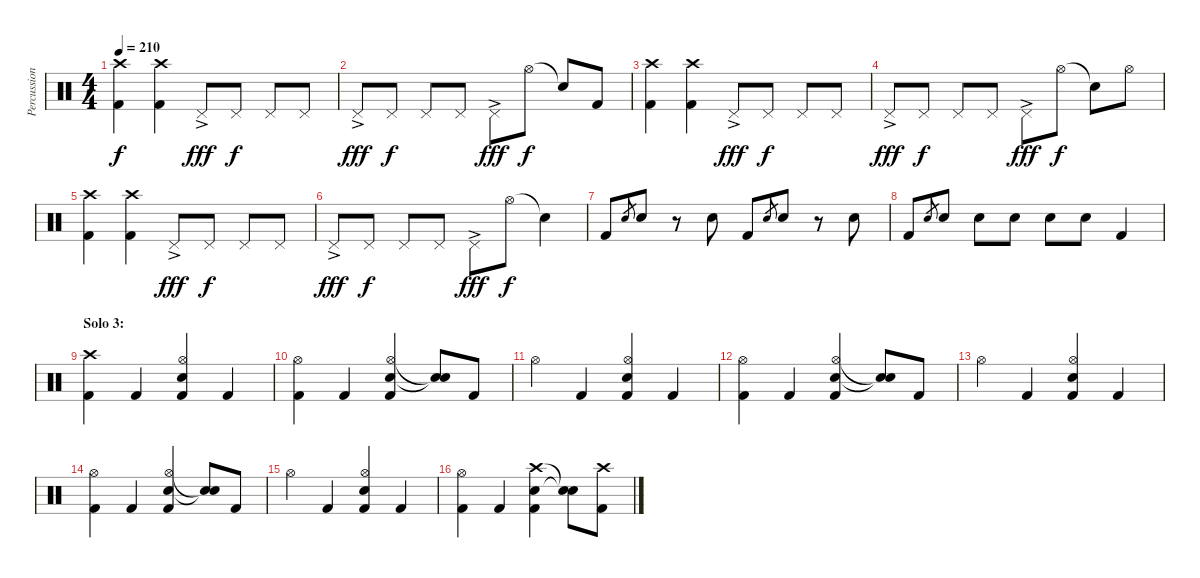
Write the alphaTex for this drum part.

\track ("Percussion" "Percussion") {instrument percussion}
\staff {score}
\articulation defaults
\ts (4 4)
\tempo 210
\clef neutral
\ks c
("Crash high (hit)" "Kick (hit) 2").4{dy f} ("Crash high (hit)" "Kick (hit) 2").4 "Pedal Hi-Hat (hit)"{ac}.8{dy fff} "Pedal Hi-Hat (hit)".8{dy f} "Pedal Hi-Hat (hit)".8 "Pedal Hi-Hat (hit)".8 |
"Pedal Hi-Hat (hit)"{ac}.8{dy fff} "Pedal Hi-Hat (hit)".8{dy f} "Pedal Hi-Hat (hit)".8 "Pedal Hi-Hat (hit)".8 "Pedal Hi-Hat (hit)"{ac}.8{dy fff} "Hi-Hat (open)".8{dy f} "Snare (hit)"{t}.8 "Kick (hit) 2".8 |
("Crash high (hit)" "Kick (hit) 2").4 ("Crash high (hit)" "Kick (hit) 2").4 "Pedal Hi-Hat (hit)"{ac}.8{dy fff} "Pedal Hi-Hat (hit)".8{dy f} "Pedal Hi-Hat (hit)".8 "Pedal Hi-Hat (hit)".8 |
"Pedal Hi-Hat (hit)"{ac}.8{dy fff} "Pedal Hi-Hat (hit)".8{dy f} "Pedal Hi-Hat (hit)".8 "Pedal Hi-Hat (hit)".8 "Pedal Hi-Hat (hit)"{ac}.8{dy fff} "Hi-Hat (open)".8{dy f} "Snare (hit)"{t}.8 "Hi-Hat (open)".8 |
("Crash high (hit)" "Kick (hit) 2").4 ("Crash high (hit)" "Kick (hit) 2").4 "Pedal Hi-Hat (hit)"{ac}.8{dy fff} "Pedal Hi-Hat (hit)".8{dy f} "Pedal Hi-Hat (hit)".8 "Pedal Hi-Hat (hit)".8 |
"Pedal Hi-Hat (hit)"{ac}.8{dy fff} "Pedal Hi-Hat (hit)".8{dy f} "Pedal Hi-Hat (hit)".8 "Pedal Hi-Hat (hit)".8 "Pedal Hi-Hat (hit)"{ac}.8{dy fff} "Hi-Hat (open)".8{dy f} "Snare (hit)"{t}.4 |
"Kick (hit) 2".8 "Snare (hit) 2".8{gr} "Snare (hit) 2".8 r.8 "Snare (hit) 2".8 "Kick (hit) 2".8 "Snare (hit) 2".8{gr} "Snare (hit) 2".8 r.8 "Snare (hit) 2".8 |
"Kick (hit) 2".8 "Snare (hit) 2".8{gr} "Snare (hit) 2".8 "Snare (hit) 2".8 "Snare (hit) 2".8 "Snare (hit) 2".8 "Snare (hit) 2".8 "Kick (hit) 2".4 |
\section ("" "Solo 3:")
("Crash high (hit)" "Kick (hit) 2").4 "Kick (hit) 2".4 ("Hi-Hat (open)" "Snare (hit) 2" "Kick (hit) 2").4 "Kick (hit) 2".4 |
("Hi-Hat (open)" "Kick (hit) 2").4 "Kick (hit) 2".4 ("Hi-Hat (open)" "Snare (hit) 2" "Kick (hit) 2").4 ("Snare (hit)"{t} "Snare (hit)"{t}).8 "Kick (hit) 2".8 |
"Hi-Hat (open)".4 "Kick (hit) 2".4 ("Hi-Hat (open)" "Snare (hit) 2" "Kick (hit) 2").4 "Kick (hit) 2".4 |
("Hi-Hat (open)" "Kick (hit) 2").4 "Kick (hit) 2".4 ("Hi-Hat (open)" "Snare (hit) 2" "Kick (hit) 2").4 ("Snare (hit)"{t} "Snare (hit)"{t}).8 "Kick (hit) 2".8 |
"Hi-Hat (open)".4 "Kick (hit) 2".4 ("Hi-Hat (open)" "Snare (hit) 2" "Kick (hit) 2").4 "Kick (hit) 2".4 |
("Hi-Hat (open)" "Kick (hit) 2").4 "Kick (hit) 2".4 ("Hi-Hat (open)" "Snare (hit) 2" "Kick (hit) 2").4 ("Snare (hit)"{t} "Snare (hit)"{t}).8 "Kick (hit) 2".8 |
"Hi-Hat (open)".4 "Kick (hit) 2".4 ("Hi-Hat (open)" "Snare (hit) 2" "Kick (hit) 2").4 "Kick (hit) 2".4 |
("Hi-Hat (open)" "Kick (hit) 2").4 "Kick (hit) 2".4 ("Crash high (hit)" "Snare (hit) 2" "Kick (hit) 2").4 ("Snare (hit)"{t} "Snare (hit)"{t}).8 ("Crash high (hit)" "Kick (hit) 2").8
